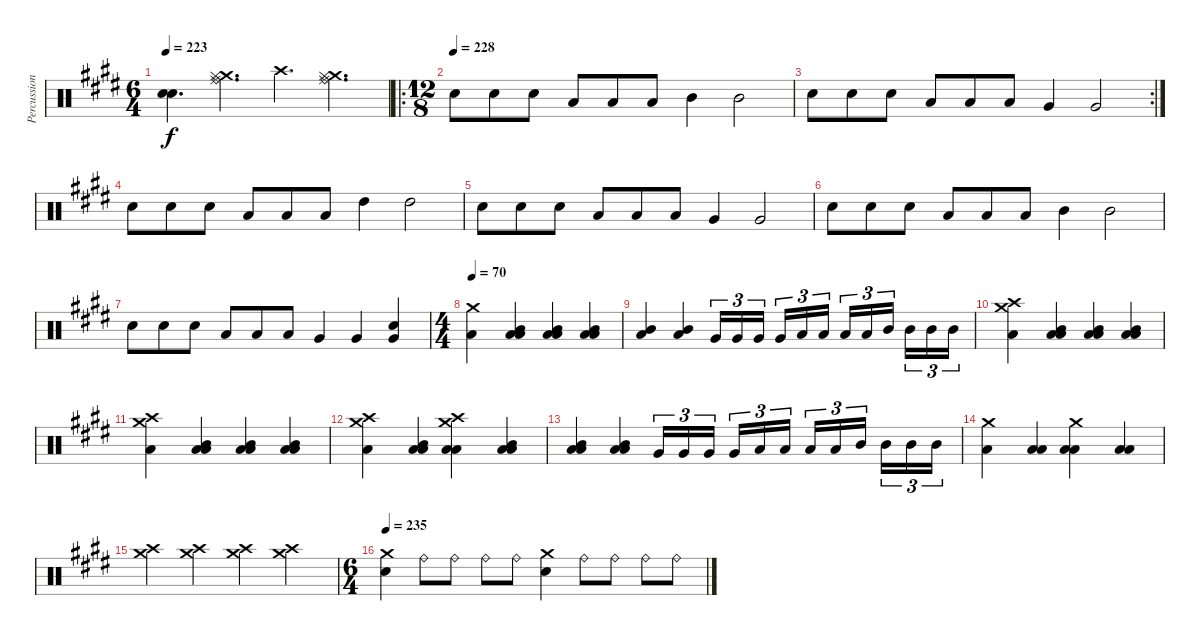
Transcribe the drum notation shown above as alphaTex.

\track ("Percussion" "Percussion") {instrument percussion}
\staff {score}
\articulation defaults
\ts (6 4)
\tempo 223
\clef neutral
\ks e
("Snare (hit) 2" "Snare (hit) 2").4{d dy f} ("Ride (middle)" "Crash medium (hit)" "Hi-Hat (closed)" "Ride (bell)").4{d} "Crash high (hit)".4{d} ("Ride (middle)" "Crash medium (hit)" "Hi-Hat (closed)" "Ride (bell)").4{d} |
\ro
\ts (12 8)
\tempo (228)
"Snare (hit) 2".8 "Snare (hit) 2".8 "Snare (hit) 2".8 "Low Tom (hit)".8 "Low Tom (hit)".8 "Low Tom (hit)".8 "Mid Tom (hit)".4 "Mid Tom (hit)".2 |
\rc 2 "Snare (hit) 2".8 "Snare (hit) 2".8 "Snare (hit) 2".8 "Low Tom (hit)".8 "Low Tom (hit)".8 "Low Tom (hit)".8 "Very Low Tom (hit)".4 "Very Low Tom (hit)".2
|
"Snare (hit) 2".8 "Snare (hit) 2".8 "Snare (hit) 2".8 "Low Tom (hit)".8 "Low Tom (hit)".8 "Low Tom (hit)".8 "High Tom (hit)".4 "High Tom (hit)".2 |
"Snare (hit) 2".8 "Snare (hit) 2".8 "Snare (hit) 2".8 "Low Tom (hit)".8 "Low Tom (hit)".8 "Low Tom (hit)".8 "Very Low Tom (hit)".4 "Very Low Tom (hit)".2 |
"Snare (hit) 2".8 "Snare (hit) 2".8 "Snare (hit) 2".8 "Low Tom (hit)".8 "Low Tom (hit)".8 "Low Tom (hit)".8 "Mid Tom (hit)".4 "Mid Tom (hit)".2 |
"Snare (hit) 2".8 "Snare (hit) 2".8 "Snare (hit) 2".8 "Low Tom (hit)".8 "Low Tom (hit)".8 "Low Tom (hit)".8 "Very Low Tom (hit)".4 "Very Low Tom (hit)".4 ("Very Low Tom (hit)" "Snare (hit) 2").4 |
\ts (4 4)
\tempo 70
("Crash medium (hit)" "Low Tom (hit)").4 ("Mid Tom (hit)" "Low Tom (hit)" "Low Tom (hit)").4 ("Mid Tom (hit)" "Low Tom (hit)" "Low Tom (hit)").4 ("Mid Tom (hit)" "Low Tom (hit)" "Low Tom (hit)").4 |
("Mid Tom (hit)" "Low Tom (hit)").4 ("Mid Tom (hit)" "Low Tom (hit)").4 "Very Low Tom (hit)".16{tu (3 2)} "Very Low Tom (hit)".16{tu (3 2)} "Very Low Tom (hit)".16{tu (3 2) beam splitsecondary} "Very Low Tom (hit)".16{tu (3 2)} "Low Tom (hit)".16{tu (3 2)} "Low Tom (hit)".16{tu (3 2)} "Low Tom (hit)".16{tu (3 2)} "Low Tom (hit)".16{tu (3 2)} "Mid Tom (hit)".16{tu (3 2) beam splitsecondary} "Mid Tom (hit)".16{tu (3 2)} "Mid Tom (hit)".16{tu (3 2)} "Mid Tom (hit)".16{tu (3 2)} |
("Crash high (hit)" "Crash medium (hit)" "Low Tom (hit)").4 ("Mid Tom (hit)" "Low Tom (hit)" "Low Tom (hit)").4 ("Mid Tom (hit)" "Low Tom (hit)" "Low Tom (hit)").4 ("Mid Tom (hit)" "Low Tom (hit)" "Low Tom (hit)").4 |
("Crash high (hit)" "Crash medium (hit)" "Low Tom (hit)").4 ("Mid Tom (hit)" "Low Tom (hit)" "Low Tom (hit)").4 ("Mid Tom (hit)" "Low Tom (hit)" "Low Tom (hit)").4 ("Mid Tom (hit)" "Low Tom (hit)" "Low Tom (hit)").4 |
("Crash high (hit)" "Crash medium (hit)" "Low Tom (hit)").4 ("Mid Tom (hit)" "Low Tom (hit)" "Low Tom (hit)").4 ("Crash high (hit)" "Crash medium (hit)" "Low Tom (hit)" "Low Tom (hit)").4 ("Mid Tom (hit)" "Low Tom (hit)" "Low Tom (hit)").4 |
("Mid Tom (hit)" "Low Tom (hit)" "Low Tom (hit)").4 ("Mid Tom (hit)" "Low Tom (hit)" "Low Tom (hit)").4 "Very Low Tom (hit)".16{tu (3 2)} "Very Low Tom (hit)".16{tu (3 2)} "Very Low Tom (hit)".16{tu (3 2) beam splitsecondary} "Very Low Tom (hit)".16{tu (3 2)} "Low Tom (hit)".16{tu (3 2)} "Low Tom (hit)".16{tu (3 2)} "Low Tom (hit)".16{tu (3 2)} "Low Tom (hit)".16{tu (3 2)} "Mid Tom (hit)".16{tu (3 2) beam splitsecondary} "Mid Tom (hit)".16{tu (3 2)} "Mid Tom (hit)".16{tu (3 2)} "Mid Tom (hit)".16{tu (3 2)} |
("Crash medium (hit)" "Low Tom (hit)").4 ("Low Tom (hit)" "Low Tom (hit)").4 ("Crash medium (hit)" "Low Tom (hit)" "Low Tom (hit)").4 ("Low Tom (hit)" "Low Tom (hit)").4 |
("Crash high (hit)" "Crash medium (hit)").4 ("Crash high (hit)" "Crash medium (hit)").4 ("Crash high (hit)" "Crash medium (hit)").4 ("Crash high (hit)" "Crash medium (hit)").4 |
\ts (6 4)
\tempo 235
("Snare (hit) 2" "Crash medium (hit)").4 "Ride (bell)".8 "Ride (bell)".8 "Ride (bell)".8 "Ride (bell)".8 ("Snare (hit) 2" "Crash medium (hit)").4 "Ride (bell)".8 "Ride (bell)".8 "Ride (bell)".8 "Ride (bell)".8
